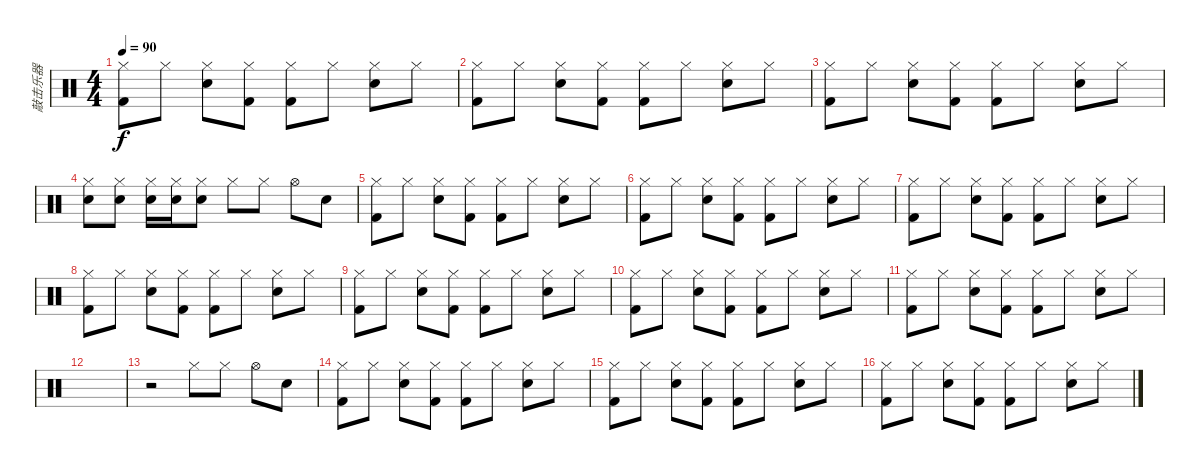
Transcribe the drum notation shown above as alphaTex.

\track ("敲击乐器" "敲击乐器") {instrument percussion}
\staff {score}
\articulation defaults
\ts (4 4)
\tempo 90
\clef neutral
\ks c
("Hi-Hat (closed)" "Kick (hit) 2").8{dy f} "Hi-Hat (closed)".8 ("Hi-Hat (closed)" "Electric Snare (hit)").8 ("Hi-Hat (closed)" "Kick (hit) 2").8 ("Hi-Hat (closed)" "Kick (hit) 2").8 "Hi-Hat (closed)".8 ("Hi-Hat (closed)" "Electric Snare (hit)").8 "Hi-Hat (closed)".8 |
("Hi-Hat (closed)" "Kick (hit) 2").8 "Hi-Hat (closed)".8 ("Hi-Hat (closed)" "Electric Snare (hit)").8 ("Hi-Hat (closed)" "Kick (hit) 2").8 ("Hi-Hat (closed)" "Kick (hit) 2").8 "Hi-Hat (closed)".8 ("Hi-Hat (closed)" "Electric Snare (hit)").8 "Hi-Hat (closed)".8 |
("Hi-Hat (closed)" "Kick (hit) 2").8 "Hi-Hat (closed)".8 ("Hi-Hat (closed)" "Electric Snare (hit)").8 ("Hi-Hat (closed)" "Kick (hit) 2").8 ("Hi-Hat (closed)" "Kick (hit) 2").8 "Hi-Hat (closed)".8 ("Hi-Hat (closed)" "Electric Snare (hit)").8 "Hi-Hat (closed)".8 |
("Hi-Hat (closed)" "Electric Snare (hit)").8 ("Hi-Hat (closed)" "Electric Snare (hit)").8 ("Hi-Hat (closed)" "Electric Snare (hit)").16 ("Hi-Hat (closed)" "Electric Snare (hit)").16 ("Hi-Hat (closed)" "Electric Snare (hit)").8 "Hi-Hat (closed)".8 "Hi-Hat (closed)".8 "Hi-Hat (open)".8 "Electric Snare (hit)".8 |
("Hi-Hat (closed)" "Kick (hit) 2").8 "Hi-Hat (closed)".8 ("Hi-Hat (closed)" "Electric Snare (hit)").8 ("Hi-Hat (closed)" "Kick (hit) 2").8 ("Hi-Hat (closed)" "Kick (hit) 2").8 "Hi-Hat (closed)".8 ("Hi-Hat (closed)" "Electric Snare (hit)").8 "Hi-Hat (closed)".8 |
("Hi-Hat (closed)" "Kick (hit) 2").8 "Hi-Hat (closed)".8 ("Hi-Hat (closed)" "Electric Snare (hit)").8 ("Hi-Hat (closed)" "Kick (hit) 2").8 ("Hi-Hat (closed)" "Kick (hit) 2").8 "Hi-Hat (closed)".8 ("Hi-Hat (closed)" "Electric Snare (hit)").8 "Hi-Hat (closed)".8 |
("Hi-Hat (closed)" "Kick (hit) 2").8 "Hi-Hat (closed)".8 ("Hi-Hat (closed)" "Electric Snare (hit)").8 ("Hi-Hat (closed)" "Kick (hit) 2").8 ("Hi-Hat (closed)" "Kick (hit) 2").8 "Hi-Hat (closed)".8 ("Hi-Hat (closed)" "Electric Snare (hit)").8 "Hi-Hat (closed)".8 |
("Hi-Hat (closed)" "Kick (hit) 2").8 "Hi-Hat (closed)".8 ("Hi-Hat (closed)" "Electric Snare (hit)").8 ("Hi-Hat (closed)" "Kick (hit) 2").8 ("Hi-Hat (closed)" "Kick (hit) 2").8 "Hi-Hat (closed)".8 ("Hi-Hat (closed)" "Electric Snare (hit)").8 "Hi-Hat (closed)".8 |
("Hi-Hat (closed)" "Kick (hit) 2").8 "Hi-Hat (closed)".8 ("Hi-Hat (closed)" "Electric Snare (hit)").8 ("Hi-Hat (closed)" "Kick (hit) 2").8 ("Hi-Hat (closed)" "Kick (hit) 2").8 "Hi-Hat (closed)".8 ("Hi-Hat (closed)" "Electric Snare (hit)").8 "Hi-Hat (closed)".8 |
("Hi-Hat (closed)" "Kick (hit) 2").8 "Hi-Hat (closed)".8 ("Hi-Hat (closed)" "Electric Snare (hit)").8 ("Hi-Hat (closed)" "Kick (hit) 2").8 ("Hi-Hat (closed)" "Kick (hit) 2").8 "Hi-Hat (closed)".8 ("Hi-Hat (closed)" "Electric Snare (hit)").8 "Hi-Hat (closed)".8 |
("Hi-Hat (closed)" "Kick (hit) 2").8 "Hi-Hat (closed)".8 ("Hi-Hat (closed)" "Electric Snare (hit)").8 ("Hi-Hat (closed)" "Kick (hit) 2").8 ("Hi-Hat (closed)" "Kick (hit) 2").8 "Hi-Hat (closed)".8 ("Hi-Hat (closed)" "Electric Snare (hit)").8 "Hi-Hat (closed)".8 |
|
r.2 "Hi-Hat (closed)".8 "Hi-Hat (closed)".8 "Hi-Hat (open)".8 "Electric Snare (hit)".8 |
("Hi-Hat (closed)" "Kick (hit) 2").8 "Hi-Hat (closed)".8 ("Hi-Hat (closed)" "Electric Snare (hit)").8 ("Hi-Hat (closed)" "Kick (hit) 2").8 ("Hi-Hat (closed)" "Kick (hit) 2").8 "Hi-Hat (closed)".8 ("Hi-Hat (closed)" "Electric Snare (hit)").8 "Hi-Hat (closed)".8 |
("Hi-Hat (closed)" "Kick (hit) 2").8 "Hi-Hat (closed)".8 ("Hi-Hat (closed)" "Electric Snare (hit)").8 ("Hi-Hat (closed)" "Kick (hit) 2").8 ("Hi-Hat (closed)" "Kick (hit) 2").8 "Hi-Hat (closed)".8 ("Hi-Hat (closed)" "Electric Snare (hit)").8 "Hi-Hat (closed)".8 |
("Hi-Hat (closed)" "Kick (hit) 2").8 "Hi-Hat (closed)".8 ("Hi-Hat (closed)" "Electric Snare (hit)").8 ("Hi-Hat (closed)" "Kick (hit) 2").8 ("Hi-Hat (closed)" "Kick (hit) 2").8 "Hi-Hat (closed)".8 ("Hi-Hat (closed)" "Electric Snare (hit)").8 "Hi-Hat (closed)".8
